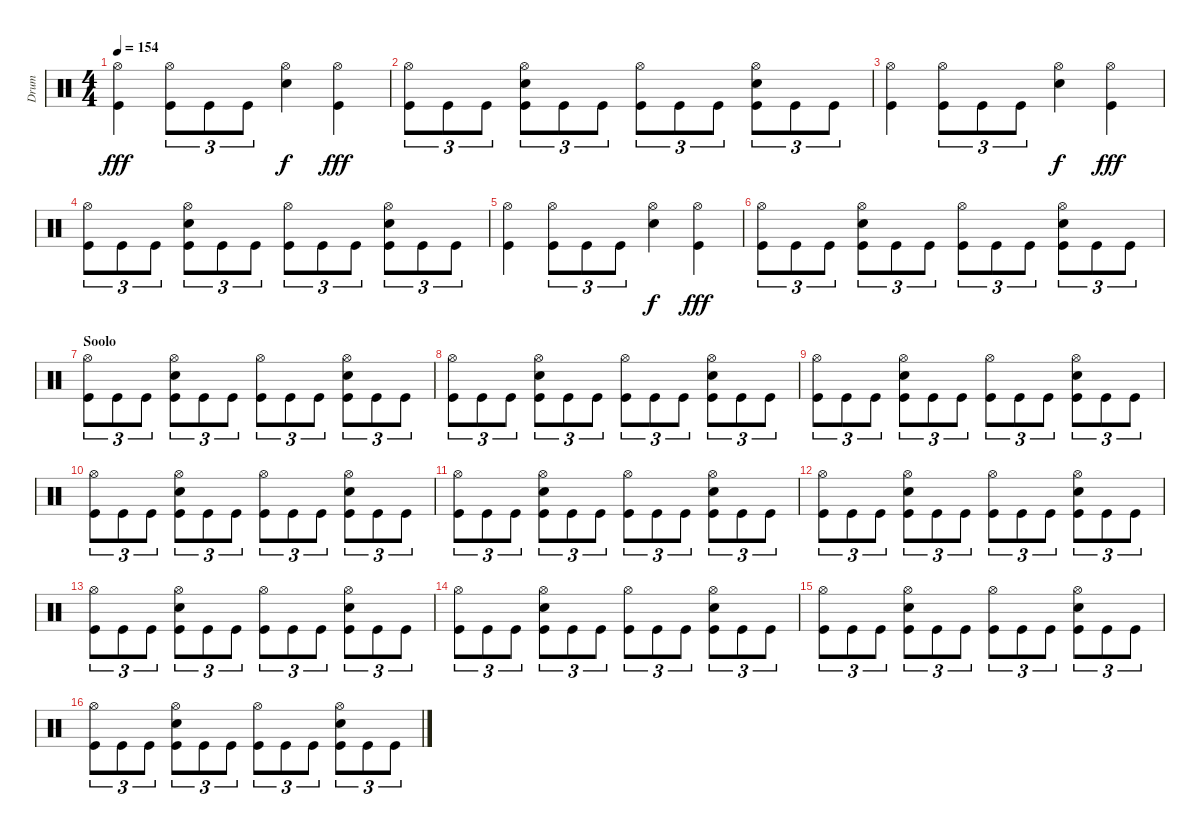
\track ("Drum" "Drum") {instrument percussion}
\staff {score}
\articulation defaults
\ts (4 4)
\tempo 154
\clef neutral
\ks c
("Hi-Hat (open)" "Kick (hit)").4{dy fff} ("Hi-Hat (open)" "Kick (hit)").8{tu (3 2)} "Kick (hit)".8{tu (3 2)} "Kick (hit)".8{tu (3 2)} ("Hi-Hat (open)" "Snare (hit) 2").4{dy f} ("Hi-Hat (open)" "Kick (hit)").4{dy fff} |
("Hi-Hat (open)" "Kick (hit)").8{tu (3 2)} "Kick (hit)".8{tu (3 2)} "Kick (hit)".8{tu (3 2)} ("Hi-Hat (open)" "Snare (hit) 2" "Kick (hit)").8{tu (3 2)} "Kick (hit)".8{tu (3 2)} "Kick (hit)".8{tu (3 2)} ("Hi-Hat (open)" "Kick (hit)").8{tu (3 2)} "Kick (hit)".8{tu (3 2)} "Kick (hit)".8{tu (3 2)} ("Hi-Hat (open)" "Snare (hit) 2" "Kick (hit)").8{tu (3 2)} "Kick (hit)".8{tu (3 2)} "Kick (hit)".8{tu (3 2)} |
("Hi-Hat (open)" "Kick (hit)").4 ("Hi-Hat (open)" "Kick (hit)").8{tu (3 2)} "Kick (hit)".8{tu (3 2)} "Kick (hit)".8{tu (3 2)} ("Hi-Hat (open)" "Snare (hit) 2").4{dy f} ("Hi-Hat (open)" "Kick (hit)").4{dy fff} |
("Hi-Hat (open)" "Kick (hit)").8{tu (3 2)} "Kick (hit)".8{tu (3 2)} "Kick (hit)".8{tu (3 2)} ("Hi-Hat (open)" "Snare (hit) 2" "Kick (hit)").8{tu (3 2)} "Kick (hit)".8{tu (3 2)} "Kick (hit)".8{tu (3 2)} ("Hi-Hat (open)" "Kick (hit)").8{tu (3 2)} "Kick (hit)".8{tu (3 2)} "Kick (hit)".8{tu (3 2)} ("Hi-Hat (open)" "Snare (hit) 2" "Kick (hit)").8{tu (3 2)} "Kick (hit)".8{tu (3 2)} "Kick (hit)".8{tu (3 2)} |
("Hi-Hat (open)" "Kick (hit)").4 ("Hi-Hat (open)" "Kick (hit)").8{tu (3 2)} "Kick (hit)".8{tu (3 2)} "Kick (hit)".8{tu (3 2)} ("Hi-Hat (open)" "Snare (hit) 2").4{dy f} ("Hi-Hat (open)" "Kick (hit)").4{dy fff} |
("Hi-Hat (open)" "Kick (hit)").8{tu (3 2)} "Kick (hit)".8{tu (3 2)} "Kick (hit)".8{tu (3 2)} ("Hi-Hat (open)" "Snare (hit) 2" "Kick (hit)").8{tu (3 2)} "Kick (hit)".8{tu (3 2)} "Kick (hit)".8{tu (3 2)} ("Hi-Hat (open)" "Kick (hit)").8{tu (3 2)} "Kick (hit)".8{tu (3 2)} "Kick (hit)".8{tu (3 2)} ("Hi-Hat (open)" "Snare (hit) 2" "Kick (hit)").8{tu (3 2)} "Kick (hit)".8{tu (3 2)} "Kick (hit)".8{tu (3 2)} |
\section ("" "Soolo")
("Hi-Hat (open)" "Kick (hit)").8{tu (3 2)} "Kick (hit)".8{tu (3 2)} "Kick (hit)".8{tu (3 2)} ("Hi-Hat (open)" "Snare (hit) 2" "Kick (hit)").8{tu (3 2)} "Kick (hit)".8{tu (3 2)} "Kick (hit)".8{tu (3 2)} ("Hi-Hat (open)" "Kick (hit)").8{tu (3 2)} "Kick (hit)".8{tu (3 2)} "Kick (hit)".8{tu (3 2)} ("Hi-Hat (open)" "Snare (hit) 2" "Kick (hit)").8{tu (3 2)} "Kick (hit)".8{tu (3 2)} "Kick (hit)".8{tu (3 2)} |
("Hi-Hat (open)" "Kick (hit)").8{tu (3 2)} "Kick (hit)".8{tu (3 2)} "Kick (hit)".8{tu (3 2)} ("Hi-Hat (open)" "Snare (hit) 2" "Kick (hit)").8{tu (3 2)} "Kick (hit)".8{tu (3 2)} "Kick (hit)".8{tu (3 2)} ("Hi-Hat (open)" "Kick (hit)").8{tu (3 2)} "Kick (hit)".8{tu (3 2)} "Kick (hit)".8{tu (3 2)} ("Hi-Hat (open)" "Snare (hit) 2" "Kick (hit)").8{tu (3 2)} "Kick (hit)".8{tu (3 2)} "Kick (hit)".8{tu (3 2)} |
("Hi-Hat (open)" "Kick (hit)").8{tu (3 2)} "Kick (hit)".8{tu (3 2)} "Kick (hit)".8{tu (3 2)} ("Hi-Hat (open)" "Snare (hit) 2" "Kick (hit)").8{tu (3 2)} "Kick (hit)".8{tu (3 2)} "Kick (hit)".8{tu (3 2)} ("Hi-Hat (open)" "Kick (hit)").8{tu (3 2)} "Kick (hit)".8{tu (3 2)} "Kick (hit)".8{tu (3 2)} ("Hi-Hat (open)" "Snare (hit) 2" "Kick (hit)").8{tu (3 2)} "Kick (hit)".8{tu (3 2)} "Kick (hit)".8{tu (3 2)} |
("Hi-Hat (open)" "Kick (hit)").8{tu (3 2)} "Kick (hit)".8{tu (3 2)} "Kick (hit)".8{tu (3 2)} ("Hi-Hat (open)" "Snare (hit) 2" "Kick (hit)").8{tu (3 2)} "Kick (hit)".8{tu (3 2)} "Kick (hit)".8{tu (3 2)} ("Hi-Hat (open)" "Kick (hit)").8{tu (3 2)} "Kick (hit)".8{tu (3 2)} "Kick (hit)".8{tu (3 2)} ("Hi-Hat (open)" "Snare (hit) 2" "Kick (hit)").8{tu (3 2)} "Kick (hit)".8{tu (3 2)} "Kick (hit)".8{tu (3 2)} |
("Hi-Hat (open)" "Kick (hit)").8{tu (3 2)} "Kick (hit)".8{tu (3 2)} "Kick (hit)".8{tu (3 2)} ("Hi-Hat (open)" "Snare (hit) 2" "Kick (hit)").8{tu (3 2)} "Kick (hit)".8{tu (3 2)} "Kick (hit)".8{tu (3 2)} ("Hi-Hat (open)" "Kick (hit)").8{tu (3 2)} "Kick (hit)".8{tu (3 2)} "Kick (hit)".8{tu (3 2)} ("Hi-Hat (open)" "Snare (hit) 2" "Kick (hit)").8{tu (3 2)} "Kick (hit)".8{tu (3 2)} "Kick (hit)".8{tu (3 2)} |
("Hi-Hat (open)" "Kick (hit)").8{tu (3 2)} "Kick (hit)".8{tu (3 2)} "Kick (hit)".8{tu (3 2)} ("Hi-Hat (open)" "Snare (hit) 2" "Kick (hit)").8{tu (3 2)} "Kick (hit)".8{tu (3 2)} "Kick (hit)".8{tu (3 2)} ("Hi-Hat (open)" "Kick (hit)").8{tu (3 2)} "Kick (hit)".8{tu (3 2)} "Kick (hit)".8{tu (3 2)} ("Hi-Hat (open)" "Snare (hit) 2" "Kick (hit)").8{tu (3 2)} "Kick (hit)".8{tu (3 2)} "Kick (hit)".8{tu (3 2)} |
("Hi-Hat (open)" "Kick (hit)").8{tu (3 2)} "Kick (hit)".8{tu (3 2)} "Kick (hit)".8{tu (3 2)} ("Hi-Hat (open)" "Snare (hit) 2" "Kick (hit)").8{tu (3 2)} "Kick (hit)".8{tu (3 2)} "Kick (hit)".8{tu (3 2)} ("Hi-Hat (open)" "Kick (hit)").8{tu (3 2)} "Kick (hit)".8{tu (3 2)} "Kick (hit)".8{tu (3 2)} ("Hi-Hat (open)" "Snare (hit) 2" "Kick (hit)").8{tu (3 2)} "Kick (hit)".8{tu (3 2)} "Kick (hit)".8{tu (3 2)} |
("Hi-Hat (open)" "Kick (hit)").8{tu (3 2)} "Kick (hit)".8{tu (3 2)} "Kick (hit)".8{tu (3 2)} ("Hi-Hat (open)" "Snare (hit) 2" "Kick (hit)").8{tu (3 2)} "Kick (hit)".8{tu (3 2)} "Kick (hit)".8{tu (3 2)} ("Hi-Hat (open)" "Kick (hit)").8{tu (3 2)} "Kick (hit)".8{tu (3 2)} "Kick (hit)".8{tu (3 2)} ("Hi-Hat (open)" "Snare (hit) 2" "Kick (hit)").8{tu (3 2)} "Kick (hit)".8{tu (3 2)} "Kick (hit)".8{tu (3 2)} |
("Hi-Hat (open)" "Kick (hit)").8{tu (3 2)} "Kick (hit)".8{tu (3 2)} "Kick (hit)".8{tu (3 2)} ("Hi-Hat (open)" "Snare (hit) 2" "Kick (hit)").8{tu (3 2)} "Kick (hit)".8{tu (3 2)} "Kick (hit)".8{tu (3 2)} ("Hi-Hat (open)" "Kick (hit)").8{tu (3 2)} "Kick (hit)".8{tu (3 2)} "Kick (hit)".8{tu (3 2)} ("Hi-Hat (open)" "Snare (hit) 2" "Kick (hit)").8{tu (3 2)} "Kick (hit)".8{tu (3 2)} "Kick (hit)".8{tu (3 2)} |
("Hi-Hat (open)" "Kick (hit)").8{tu (3 2)} "Kick (hit)".8{tu (3 2)} "Kick (hit)".8{tu (3 2)} ("Hi-Hat (open)" "Snare (hit) 2" "Kick (hit)").8{tu (3 2)} "Kick (hit)".8{tu (3 2)} "Kick (hit)".8{tu (3 2)} ("Hi-Hat (open)" "Kick (hit)").8{tu (3 2)} "Kick (hit)".8{tu (3 2)} "Kick (hit)".8{tu (3 2)} ("Hi-Hat (open)" "Snare (hit) 2" "Kick (hit)").8{tu (3 2)} "Kick (hit)".8{tu (3 2)} "Kick (hit)".8{tu (3 2)}
